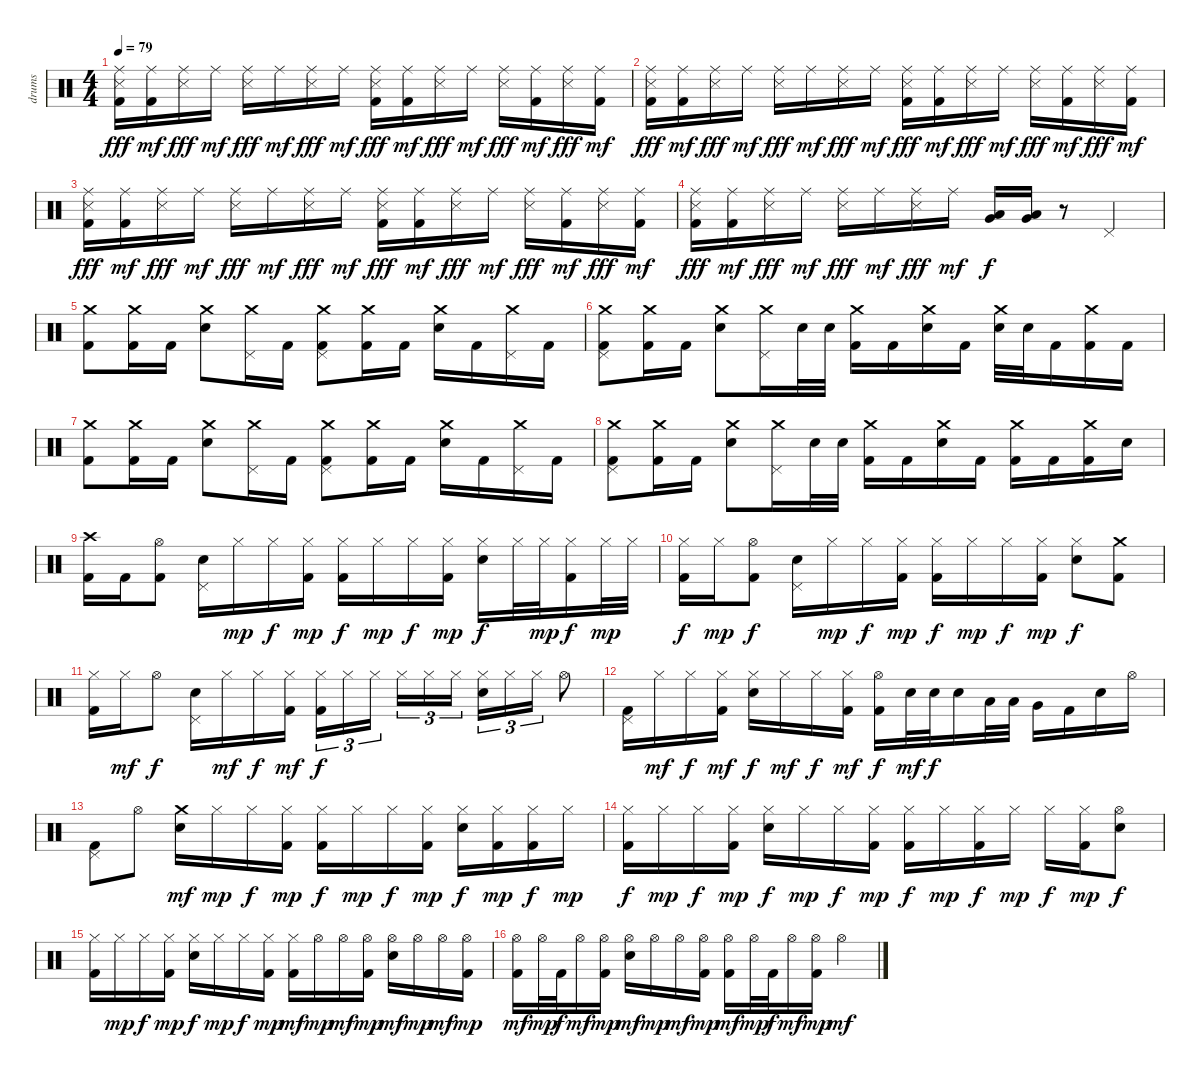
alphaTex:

\track ("drums" "drums") {instrument percussion}
\staff {score}
\articulation defaults
\ts (4 4)
\tempo 79
\clef neutral
\ks c
("Snare (side stick) 3" "Ride (middle)" "Kick (hit) 2").16{dy fff} ("Ride (middle)" "Kick (hit) 2").16{dy mf} ("Snare (side stick) 3" "Ride (middle)").16{dy fff} "Ride (middle)".16{dy mf} ("Snare (side stick) 3" "Ride (middle)").16{dy fff} "Ride (middle)".16{dy mf} ("Snare (side stick) 3" "Ride (middle)").16{dy fff} "Ride (middle)".16{dy mf} ("Snare (side stick) 3" "Ride (middle)" "Kick (hit) 2").16{dy fff} ("Ride (middle)" "Kick (hit) 2").16{dy mf} ("Snare (side stick) 3" "Ride (middle)").16{dy fff} "Ride (middle)".16{dy mf} ("Snare (side stick) 3" "Ride (middle)").16{dy fff} ("Ride (middle)" "Kick (hit) 2").16{dy mf} ("Snare (side stick) 3" "Ride (middle)").16{dy fff} ("Ride (middle)" "Kick (hit) 2").16{dy mf} |
("Snare (side stick) 3" "Ride (middle)" "Kick (hit) 2").16{dy fff} ("Ride (middle)" "Kick (hit) 2").16{dy mf} ("Snare (side stick) 3" "Ride (middle)").16{dy fff} "Ride (middle)".16{dy mf} ("Snare (side stick) 3" "Ride (middle)").16{dy fff} "Ride (middle)".16{dy mf} ("Snare (side stick) 3" "Ride (middle)").16{dy fff} "Ride (middle)".16{dy mf} ("Snare (side stick) 3" "Ride (middle)" "Kick (hit) 2").16{dy fff} ("Ride (middle)" "Kick (hit) 2").16{dy mf} ("Snare (side stick) 3" "Ride (middle)").16{dy fff} "Ride (middle)".16{dy mf} ("Snare (side stick) 3" "Ride (middle)").16{dy fff} ("Ride (middle)" "Kick (hit) 2").16{dy mf} ("Snare (side stick) 3" "Ride (middle)").16{dy fff} ("Ride (middle)" "Kick (hit) 2").16{dy mf} |
("Snare (side stick) 3" "Ride (middle)" "Kick (hit) 2").16{dy fff} ("Ride (middle)" "Kick (hit) 2").16{dy mf} ("Snare (side stick) 3" "Ride (middle)").16{dy fff} "Ride (middle)".16{dy mf} ("Snare (side stick) 3" "Ride (middle)").16{dy fff} "Ride (middle)".16{dy mf} ("Snare (side stick) 3" "Ride (middle)").16{dy fff} "Ride (middle)".16{dy mf} ("Snare (side stick) 3" "Ride (middle)" "Kick (hit) 2").16{dy fff} ("Ride (middle)" "Kick (hit) 2").16{dy mf} ("Snare (side stick) 3" "Ride (middle)").16{dy fff} "Ride (middle)".16{dy mf} ("Snare (side stick) 3" "Ride (middle)").16{dy fff} ("Ride (middle)" "Kick (hit) 2").16{dy mf} ("Snare (side stick) 3" "Ride (middle)").16{dy fff} ("Ride (middle)" "Kick (hit) 2").16{dy mf} |
("Snare (side stick) 3" "Ride (middle)" "Kick (hit) 2").16{dy fff} ("Ride (middle)" "Kick (hit) 2").16{dy mf} ("Snare (side stick) 3" "Ride (middle)").16{dy fff} "Ride (middle)".16{dy mf} ("Snare (side stick) 3" "Ride (middle)").16{dy fff} "Ride (middle)".16{dy mf} ("Snare (side stick) 3" "Ride (middle)").16{dy fff} "Ride (middle)".16{dy mf} ("Low Tom (hit)" "Very Low Tom (hit)").16{dy f} ("Low Tom (hit)" "Very Low Tom (hit)").16 r.8 "Pedal Hi-Hat (hit)".4 |
("Crash medium (hit)" "Kick (hit) 2").8 ("Crash medium (hit)" "Kick (hit) 2").16 "Kick (hit) 2".16 ("Crash medium (hit)" "Electric Snare (hit)").8 ("Crash medium (hit)" "Pedal Hi-Hat (hit)").16 "Kick (hit) 2".16 ("Crash medium (hit)" "Pedal Hi-Hat (hit)" "Kick (hit) 2").8 ("Crash medium (hit)" "Kick (hit) 2").16 "Kick (hit) 2".16 ("Crash medium (hit)" "Electric Snare (hit)").16 "Kick (hit) 2".16 ("Crash medium (hit)" "Pedal Hi-Hat (hit)").16 "Kick (hit) 2".16 |
("Crash medium (hit)" "Pedal Hi-Hat (hit)" "Kick (hit) 2").8 ("Crash medium (hit)" "Kick (hit) 2").16 "Kick (hit) 2".16 ("Crash medium (hit)" "Electric Snare (hit)").8 ("Crash medium (hit)" "Pedal Hi-Hat (hit)").16 "Electric Snare (hit)".32 "Electric Snare (hit)".32 ("Crash medium (hit)" "Kick (hit) 2").16 "Kick (hit) 2".16 ("Crash medium (hit)" "Electric Snare (hit)").16 "Kick (hit) 2".16 ("Crash medium (hit)" "Electric Snare (hit)").32 "Electric Snare (hit)".32 "Kick (hit) 2".16 ("Crash medium (hit)" "Kick (hit) 2").16 "Kick (hit) 2".16 |
("Crash medium (hit)" "Kick (hit) 2").8 ("Crash medium (hit)" "Kick (hit) 2").16 "Kick (hit) 2".16 ("Crash medium (hit)" "Electric Snare (hit)").8 ("Crash medium (hit)" "Pedal Hi-Hat (hit)").16 "Kick (hit) 2".16 ("Crash medium (hit)" "Pedal Hi-Hat (hit)" "Kick (hit) 2").8 ("Crash medium (hit)" "Kick (hit) 2").16 "Kick (hit) 2".16 ("Crash medium (hit)" "Electric Snare (hit)").16 "Kick (hit) 2".16 ("Crash medium (hit)" "Pedal Hi-Hat (hit)").16 "Kick (hit) 2".16 |
("Crash medium (hit)" "Pedal Hi-Hat (hit)" "Kick (hit) 2").8 ("Crash medium (hit)" "Kick (hit) 2").16 "Kick (hit) 2".16 ("Crash medium (hit)" "Electric Snare (hit)").8 ("Crash medium (hit)" "Pedal Hi-Hat (hit)").16 "Electric Snare (hit)".32 "Electric Snare (hit)".32 ("Crash medium (hit)" "Kick (hit) 2").16 "Kick (hit) 2".16 ("Crash medium (hit)" "Electric Snare (hit)").16 "Kick (hit) 2".16 ("Crash medium (hit)" "Kick (hit) 2").16 "Kick (hit) 2".16 ("Crash medium (hit)" "Kick (hit) 2").16 "Electric Snare (hit)".16 |
("Crash high (hit)" "Kick (hit) 2").16 "Kick (hit) 2".16 ("Hi-Hat (open)" "Kick (hit) 2").8 ("Pedal Hi-Hat (hit)" "Electric Snare (hit)").16 "Hi-Hat (closed)".16{dy mp} "Hi-Hat (closed)".16{dy f} ("Hi-Hat (closed)" "Kick (hit) 2").16{dy mp} ("Hi-Hat (closed)" "Kick (hit) 2").16{dy f} "Hi-Hat (closed)".16{dy mp} "Hi-Hat (closed)".16{dy f} ("Hi-Hat (closed)" "Kick (hit) 2").16{dy mp} ("Hi-Hat (closed)" "Electric Snare (hit)").16{dy f} "Hi-Hat (closed)".32 "Hi-Hat (closed)".32{dy mp} ("Hi-Hat (closed)" "Kick (hit) 2").16{dy f} "Hi-Hat (closed)".32{dy mp} "Hi-Hat (closed)".32 |
("Hi-Hat (closed)" "Kick (hit) 2").16{dy f} "Hi-Hat (closed)".16{dy mp} ("Hi-Hat (open)" "Kick (hit) 2").8{dy f} ("Pedal Hi-Hat (hit)" "Electric Snare (hit)").16 "Hi-Hat (closed)".16{dy mp} "Hi-Hat (closed)".16{dy f} ("Hi-Hat (closed)" "Kick (hit) 2").16{dy mp} ("Hi-Hat (closed)" "Kick (hit) 2").16{dy f} "Hi-Hat (closed)".16{dy mp} "Hi-Hat (closed)".16{dy f} ("Hi-Hat (closed)" "Kick (hit) 2").16{dy mp} ("Hi-Hat (closed)" "Electric Snare (hit)").8{dy f} ("Crash medium (hit)" "Kick (hit) 2").8 |
("Hi-Hat (closed)" "Kick (hit) 2").16 "Hi-Hat (closed)".16{dy mf} "Hi-Hat (open)".8{dy f} ("Pedal Hi-Hat (hit)" "Electric Snare (hit)").16 "Hi-Hat (closed)".16{dy mf} "Hi-Hat (closed)".16{dy f} ("Hi-Hat (closed)" "Kick (hit) 2").16{dy mf} ("Hi-Hat (closed)" "Kick (hit) 2").16{tu (3 2) dy f} "Hi-Hat (closed)".16{tu (3 2)} "Hi-Hat (closed)".16{tu (3 2)} "Hi-Hat (closed)".16{tu (3 2)} "Hi-Hat (closed)".16{tu (3 2)} "Hi-Hat (closed)".16{tu (3 2)} ("Hi-Hat (closed)" "Electric Snare (hit)").16{tu (3 2)} "Hi-Hat (closed)".16{tu (3 2)} "Hi-Hat (closed)".16{tu (3 2)} "Hi-Hat (open)".8 |
("Pedal Hi-Hat (hit)" "Kick (hit) 2").16 "Hi-Hat (closed)".16{dy mf} "Hi-Hat (closed)".16{dy f} ("Hi-Hat (closed)" "Kick (hit) 2").16{dy mf} ("Hi-Hat (closed)" "Electric Snare (hit)").16{dy f} "Hi-Hat (closed)".16{dy mf} "Hi-Hat (closed)".16{dy f} ("Hi-Hat (closed)" "Kick (hit) 2").16{dy mf} ("Hi-Hat (open)" "Kick (hit) 2").16{dy f} "Electric Snare (hit)".32{dy mf} "Electric Snare (hit)".32{dy f} "Electric Snare (hit)".16 "Low Tom (hit)".32 "Low Tom (hit)".32 "Very Low Tom (hit)".16 "Kick (hit) 2".16 "Electric Snare (hit)".16 "Hi-Hat (open)".16 |
("Pedal Hi-Hat (hit)" "Kick (hit) 2").8 "Hi-Hat (open)".8 ("Crash medium (hit)" "Electric Snare (hit)").16{dy mf} "Hi-Hat (closed)".16{dy mp} "Hi-Hat (closed)".16{dy f} ("Hi-Hat (closed)" "Kick (hit) 2").16{dy mp} ("Hi-Hat (closed)" "Kick (hit) 2").16{dy f} "Hi-Hat (closed)".16{dy mp} "Hi-Hat (closed)".16{dy f} ("Hi-Hat (closed)" "Kick (hit) 2").16{dy mp} ("Hi-Hat (closed)" "Electric Snare (hit)").16{dy f} ("Hi-Hat (closed)" "Kick (hit) 2").16{dy mp} ("Hi-Hat (closed)" "Kick (hit) 2").16{dy f} "Hi-Hat (closed)".16{dy mp} |
("Hi-Hat (closed)" "Kick (hit) 2").16{dy f} "Hi-Hat (closed)".16{dy mp} "Hi-Hat (closed)".16{dy f} ("Hi-Hat (closed)" "Kick (hit) 2").16{dy mp} ("Hi-Hat (closed)" "Electric Snare (hit)").16{dy f} "Hi-Hat (closed)".16{dy mp} "Hi-Hat (closed)".16{dy f} ("Hi-Hat (closed)" "Kick (hit) 2").16{dy mp} ("Hi-Hat (closed)" "Kick (hit) 2").16{dy f} "Hi-Hat (closed)".16{dy mp} ("Hi-Hat (closed)" "Kick (hit) 2").16{dy f} "Hi-Hat (closed)".16{dy mp} "Hi-Hat (closed)".16{dy f} ("Hi-Hat (closed)" "Kick (hit) 2").16{dy mp} ("Hi-Hat (open)" "Electric Snare (hit)").8{dy f} |
("Hi-Hat (closed)" "Kick (hit) 2").16 "Hi-Hat (closed)".16{dy mp} "Hi-Hat (closed)".16{dy f} ("Hi-Hat (closed)" "Kick (hit) 2").16{dy mp} ("Hi-Hat (closed)" "Electric Snare (hit)").16{dy f} "Hi-Hat (closed)".16{dy mp} "Hi-Hat (closed)".16{dy f} ("Hi-Hat (closed)" "Kick (hit) 2").16{dy mp} ("Hi-Hat (closed)" "Kick (hit) 2").16{dy mf} "Hi-Hat (open)".16{dy mp} "Hi-Hat (open)".16{dy mf} ("Hi-Hat (open)" "Kick (hit) 2").16{dy mp} ("Hi-Hat (open)" "Electric Snare (hit)").16{dy mf} "Hi-Hat (open)".16{dy mp} "Hi-Hat (open)".16{dy mf} ("Hi-Hat (open)" "Kick (hit) 2").16{dy mp} |
("Hi-Hat (open)" "Kick (hit) 2").16{dy mf} "Hi-Hat (open)".32{dy mp} "Kick (hit) 2".32{dy f} "Hi-Hat (open)".16{dy mf} ("Hi-Hat (open)" "Kick (hit) 2").16{dy mp} ("Hi-Hat (open)" "Electric Snare (hit)").16{dy mf} "Hi-Hat (open)".16{dy mp} "Hi-Hat (open)".16{dy mf} ("Hi-Hat (open)" "Kick (hit) 2").16{dy mp} ("Hi-Hat (open)" "Kick (hit) 2").16{dy mf} "Hi-Hat (open)".32{dy mp} "Kick (hit) 2".32{dy f} "Hi-Hat (open)".16{dy mf} ("Hi-Hat (open)" "Kick (hit) 2").16{dy mp} "Hi-Hat (open)".4{dy mf}
